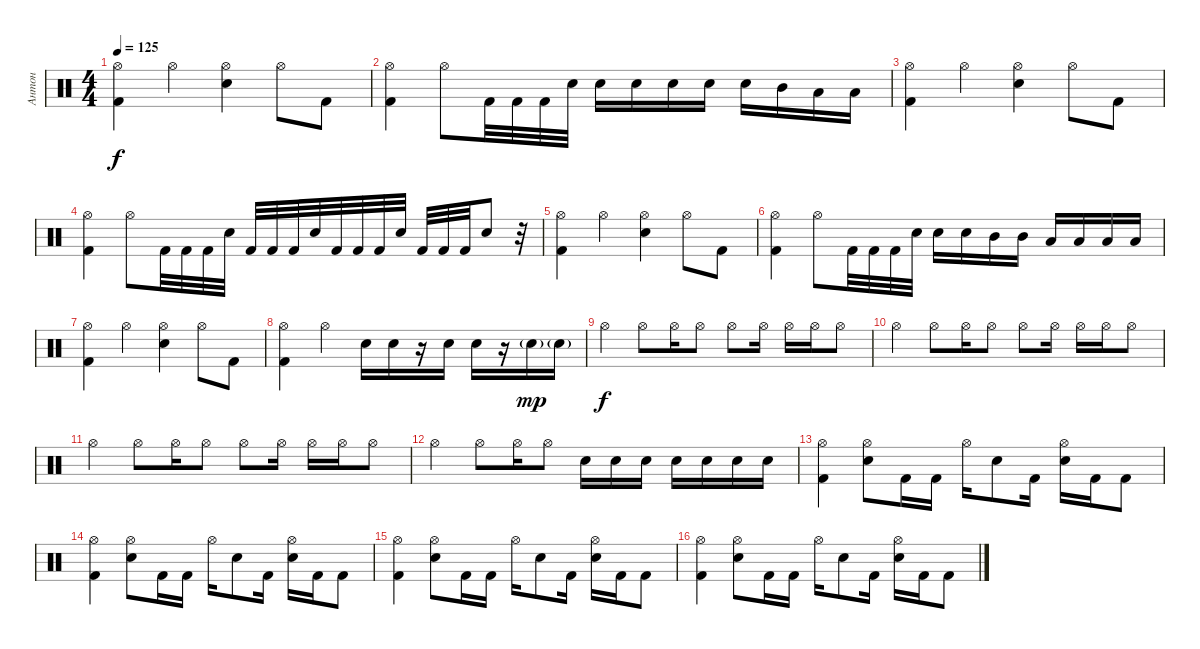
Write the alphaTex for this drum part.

\track ("Антон" "Антон") {instrument percussion}
\staff {score}
\articulation defaults
\ts (4 4)
\tempo 125
\clef neutral
\ks c
("Hi-Hat (open)" "Kick (hit) 2").4{dy f} "Hi-Hat (open)".4 ("Hi-Hat (open)" "Electric Snare (hit)").4 "Hi-Hat (open)".8 "Kick (hit) 2".8 |
("Hi-Hat (open)" "Kick (hit) 2").4 "Hi-Hat (open)".8 "Kick (hit) 2".32 "Kick (hit) 2".32 "Kick (hit) 2".32 "Electric Snare (hit)".32 "Electric Snare (hit)".16 "Electric Snare (hit)".16 "Electric Snare (hit)".16 "Electric Snare (hit)".16 "Electric Snare (hit)".16 "Mid Tom (hit)".16 "Low Tom (hit)".16 "Low Floor Tom (hit)".16 |
("Hi-Hat (open)" "Kick (hit) 2").4 "Hi-Hat (open)".4 ("Hi-Hat (open)" "Electric Snare (hit)").4 "Hi-Hat (open)".8 "Kick (hit) 2".8 |
("Hi-Hat (open)" "Kick (hit) 2").4 "Hi-Hat (open)".8 "Kick (hit) 2".32 "Kick (hit) 2".32 "Kick (hit) 2".32 "Electric Snare (hit)".32 "Kick (hit) 2".32 "Kick (hit) 2".32 "Kick (hit) 2".32 "Electric Snare (hit)".32 "Kick (hit) 2".32 "Kick (hit) 2".32 "Kick (hit) 2".32 "Electric Snare (hit)".32 "Kick (hit) 2".32 "Kick (hit) 2".32 "Kick (hit) 2".32 "Electric Snare (hit)".8 r.32 |
("Hi-Hat (open)" "Kick (hit) 2").4 "Hi-Hat (open)".4 ("Hi-Hat (open)" "Electric Snare (hit)").4 "Hi-Hat (open)".8 "Kick (hit) 2".8 |
("Hi-Hat (open)" "Kick (hit) 2").4 "Hi-Hat (open)".8 "Kick (hit) 2".32 "Kick (hit) 2".32 "Kick (hit) 2".32 "Electric Snare (hit)".32 "Electric Snare (hit)".16 "Electric Snare (hit)".16 "Mid Tom (hit)".16 "Mid Tom (hit)".16 "Low Tom (hit)".16 "Low Tom (hit)".16 "Low Floor Tom (hit)".16 "Low Floor Tom (hit)".16 |
("Hi-Hat (open)" "Kick (hit) 2").4 "Hi-Hat (open)".4 ("Hi-Hat (open)" "Electric Snare (hit)").4 "Hi-Hat (open)".8 "Kick (hit) 2".8 |
("Hi-Hat (open)" "Kick (hit) 2").4 "Hi-Hat (open)".4 "Electric Snare (hit)".16 "Electric Snare (hit)".16 r.16 "Electric Snare (hit)".16 "Electric Snare (hit)".16 r.16 "Electric Snare (hit)"{g}.16{dy mp} "Electric Snare (hit)"{g}.16 |
"Hi-Hat (open)".4{dy f} "Hi-Hat (open)".8 "Hi-Hat (open)".16 "Hi-Hat (open)".8 "Hi-Hat (open)".8 "Hi-Hat (open)".16 "Hi-Hat (open)".16 "Hi-Hat (open)".16 "Hi-Hat (open)".8 |
"Hi-Hat (open)".4 "Hi-Hat (open)".8 "Hi-Hat (open)".16 "Hi-Hat (open)".8 "Hi-Hat (open)".8 "Hi-Hat (open)".16 "Hi-Hat (open)".16 "Hi-Hat (open)".16 "Hi-Hat (open)".8 |
"Hi-Hat (open)".4 "Hi-Hat (open)".8 "Hi-Hat (open)".16 "Hi-Hat (open)".8 "Hi-Hat (open)".8 "Hi-Hat (open)".16 "Hi-Hat (open)".16 "Hi-Hat (open)".16 "Hi-Hat (open)".8 |
"Hi-Hat (open)".4 "Hi-Hat (open)".8 "Hi-Hat (open)".16 "Hi-Hat (open)".8 "Electric Snare (hit)".16 "Electric Snare (hit)".16 "Electric Snare (hit)".16 "Electric Snare (hit)".16 "Electric Snare (hit)".16 "Electric Snare (hit)".16 "Electric Snare (hit)".16 |
("Kick (hit) 2" "Hi-Hat (open)").4 ("Electric Snare (hit)" "Hi-Hat (open)").8 "Kick (hit) 2".16 "Kick (hit) 2".16 "Hi-Hat (open)".16 "Electric Snare (hit)".8 "Kick (hit) 2".16 ("Electric Snare (hit)" "Hi-Hat (open)").16 "Kick (hit) 2".16 "Kick (hit) 2".8 |
("Kick (hit) 2" "Hi-Hat (open)").4 ("Electric Snare (hit)" "Hi-Hat (open)").8 "Kick (hit) 2".16 "Kick (hit) 2".16 "Hi-Hat (open)".16 "Electric Snare (hit)".8 "Kick (hit) 2".16 ("Electric Snare (hit)" "Hi-Hat (open)").16 "Kick (hit) 2".16 "Kick (hit) 2".8 |
("Kick (hit) 2" "Hi-Hat (open)").4 ("Electric Snare (hit)" "Hi-Hat (open)").8 "Kick (hit) 2".16 "Kick (hit) 2".16 "Hi-Hat (open)".16 "Electric Snare (hit)".8 "Kick (hit) 2".16 ("Electric Snare (hit)" "Hi-Hat (open)").16 "Kick (hit) 2".16 "Kick (hit) 2".8 |
("Kick (hit) 2" "Hi-Hat (open)").4 ("Electric Snare (hit)" "Hi-Hat (open)").8 "Kick (hit) 2".16 "Kick (hit) 2".16 "Hi-Hat (open)".16 "Electric Snare (hit)".8 "Kick (hit) 2".16 ("Electric Snare (hit)" "Hi-Hat (open)").16 "Kick (hit) 2".16 "Kick (hit) 2".8
